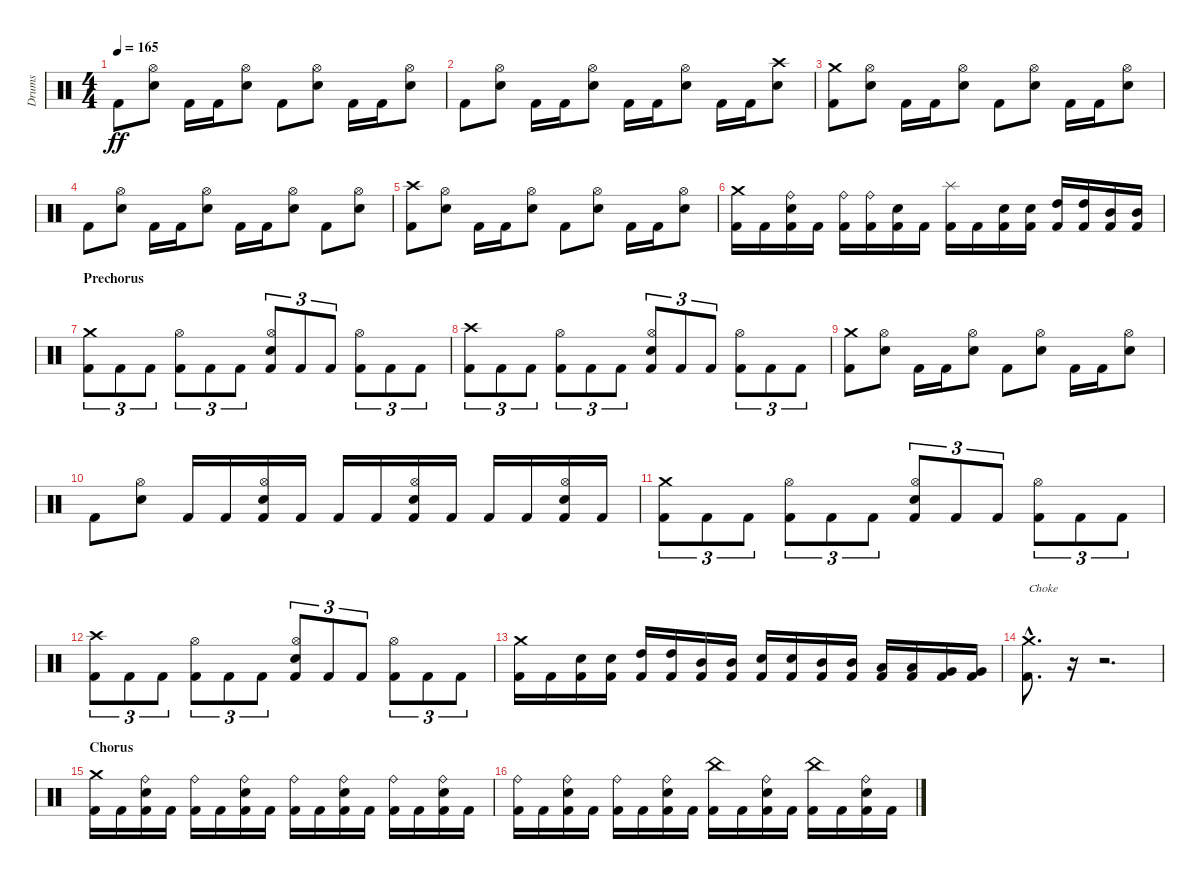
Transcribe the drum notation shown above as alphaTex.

\track ("Drums" "Drums") {instrument percussion}
\staff {score}
\articulation defaults
\ts (4 4)
\tempo 165
\clef neutral
\ks c "Kick (hit) 2".8{dy ff}
("Hi-Hat (open)" "Electric Snare (hit)").8 "Kick (hit) 2".16 "Kick (hit) 2".16 ("Hi-Hat (open)" "Electric Snare (hit)").8 "Kick (hit) 2".8 ("Hi-Hat (open)" "Electric Snare (hit)").8 "Kick (hit) 2".16 "Kick (hit) 2".16 ("Hi-Hat (open)" "Electric Snare (hit)").8 |
"Kick (hit) 2".8 ("Hi-Hat (open)" "Electric Snare (hit)").8 "Kick (hit) 2".16 "Kick (hit) 2".16 ("Hi-Hat (open)" "Electric Snare (hit)").8 "Kick (hit) 2".16 "Kick (hit) 2".16 ("Hi-Hat (open)" "Electric Snare (hit)").8 "Kick (hit) 2".16 "Kick (hit) 2".16 ("Crash high (hit)" "Electric Snare (hit)").8 |
("Crash medium (hit)" "Kick (hit) 2").8 ("Hi-Hat (open)" "Electric Snare (hit)").8 "Kick (hit) 2".16 "Kick (hit) 2".16 ("Hi-Hat (open)" "Electric Snare (hit)").8 "Kick (hit) 2".8 ("Hi-Hat (open)" "Electric Snare (hit)").8 "Kick (hit) 2".16 "Kick (hit) 2".16 ("Hi-Hat (open)" "Electric Snare (hit)").8 |
"Kick (hit) 2".8 ("Hi-Hat (open)" "Electric Snare (hit)").8 "Kick (hit) 2".16 "Kick (hit) 2".16 ("Hi-Hat (open)" "Electric Snare (hit)").8 "Kick (hit) 2".16 "Kick (hit) 2".16 ("Hi-Hat (open)" "Electric Snare (hit)").8 "Kick (hit) 2".8 ("Hi-Hat (open)" "Electric Snare (hit)").8 |
("Crash high (hit)" "Kick (hit) 2").8 ("Hi-Hat (open)" "Electric Snare (hit)").8 "Kick (hit) 2".16 "Kick (hit) 2".16 ("Hi-Hat (open)" "Electric Snare (hit)").8 "Kick (hit) 2".8 ("Hi-Hat (open)" "Electric Snare (hit)").8 "Kick (hit) 2".16 "Kick (hit) 2".16 ("Hi-Hat (open)" "Electric Snare (hit)").8 |
("Crash medium (hit)" "Kick (hit) 2").16 "Kick (hit) 2".16 ("Ride (bell)" "Electric Snare (hit)" "Kick (hit) 2").16 "Kick (hit) 2".16 ("Ride (bell)" "Kick (hit) 2").16 ("Ride (bell)" "Kick (hit) 2").16 ("Electric Snare (hit)" "Kick (hit) 2").16 "Kick (hit) 2".16 ("Splash (hit)" "Kick (hit) 2").16 "Kick (hit) 2".16 ("Electric Snare (hit)" "Kick (hit) 2").16 ("Electric Snare (hit)" "Kick (hit) 2").16 ("High Tom (hit)" "Kick (hit) 2").16 ("High Tom (hit)" "Kick (hit) 2").16 ("Mid Tom (hit)" "Kick (hit) 2").16 ("Mid Tom (hit)" "Kick (hit) 2").16 |
\section ("" "Prechorus")
("Crash medium (hit)" "Kick (hit) 2").8{tu (3 2)} "Kick (hit) 2".8{tu (3 2)} "Kick (hit) 2".8{tu (3 2)} ("Hi-Hat (open)" "Kick (hit) 2").8{tu (3 2)} "Kick (hit) 2".8{tu (3 2)} "Kick (hit) 2".8{tu (3 2)} ("Hi-Hat (open)" "Electric Snare (hit)" "Kick (hit) 2").8{tu (3 2)} "Kick (hit) 2".8{tu (3 2)} "Kick (hit) 2".8{tu (3 2)} ("Hi-Hat (open)" "Kick (hit) 2").8{tu (3 2)} "Kick (hit) 2".8{tu (3 2)} "Kick (hit) 2".8{tu (3 2)} |
("Crash high (hit)" "Kick (hit) 2").8{tu (3 2)} "Kick (hit) 2".8{tu (3 2)} "Kick (hit) 2".8{tu (3 2)} ("Hi-Hat (open)" "Kick (hit) 2").8{tu (3 2)} "Kick (hit) 2".8{tu (3 2)} "Kick (hit) 2".8{tu (3 2)} ("Hi-Hat (open)" "Electric Snare (hit)" "Kick (hit) 2").8{tu (3 2)} "Kick (hit) 2".8{tu (3 2)} "Kick (hit) 2".8{tu (3 2)} ("Hi-Hat (open)" "Kick (hit) 2").8{tu (3 2)} "Kick (hit) 2".8{tu (3 2)} "Kick (hit) 2".8{tu (3 2)} |
("Crash medium (hit)" "Kick (hit) 2").8 ("Hi-Hat (open)" "Electric Snare (hit)").8 "Kick (hit) 2".16 "Kick (hit) 2".16 ("Hi-Hat (open)" "Electric Snare (hit)").8 "Kick (hit) 2".8 ("Hi-Hat (open)" "Electric Snare (hit)").8 "Kick (hit) 2".16 "Kick (hit) 2".16 ("Hi-Hat (open)" "Electric Snare (hit)").8 |
"Kick (hit) 2".8 ("Hi-Hat (open)" "Electric Snare (hit)").8 "Kick (hit) 2".16 "Kick (hit) 2".16 ("Hi-Hat (open)" "Electric Snare (hit)" "Kick (hit) 2").16 "Kick (hit) 2".16 "Kick (hit) 2".16 "Kick (hit) 2".16 ("Hi-Hat (open)" "Electric Snare (hit)" "Kick (hit) 2").16 "Kick (hit) 2".16 "Kick (hit) 2".16 "Kick (hit) 2".16 ("Hi-Hat (open)" "Electric Snare (hit)" "Kick (hit) 2").16 "Kick (hit) 2".16 |
("Crash medium (hit)" "Kick (hit) 2").8{tu (3 2)} "Kick (hit) 2".8{tu (3 2)} "Kick (hit) 2".8{tu (3 2)} ("Hi-Hat (open)" "Kick (hit) 2").8{tu (3 2)} "Kick (hit) 2".8{tu (3 2)} "Kick (hit) 2".8{tu (3 2)} ("Hi-Hat (open)" "Electric Snare (hit)" "Kick (hit) 2").8{tu (3 2)} "Kick (hit) 2".8{tu (3 2)} "Kick (hit) 2".8{tu (3 2)} ("Hi-Hat (open)" "Kick (hit) 2").8{tu (3 2)} "Kick (hit) 2".8{tu (3 2)} "Kick (hit) 2".8{tu (3 2)} |
("Crash high (hit)" "Kick (hit) 2").8{tu (3 2)} "Kick (hit) 2".8{tu (3 2)} "Kick (hit) 2".8{tu (3 2)} ("Hi-Hat (open)" "Kick (hit) 2").8{tu (3 2)} "Kick (hit) 2".8{tu (3 2)} "Kick (hit) 2".8{tu (3 2)} ("Hi-Hat (open)" "Electric Snare (hit)" "Kick (hit) 2").8{tu (3 2)} "Kick (hit) 2".8{tu (3 2)} "Kick (hit) 2".8{tu (3 2)} ("Hi-Hat (open)" "Kick (hit) 2").8{tu (3 2)} "Kick (hit) 2".8{tu (3 2)} "Kick (hit) 2".8{tu (3 2)} |
("Crash medium (hit)" "Kick (hit) 2").16 "Kick (hit) 2".16 ("Electric Snare (hit)" "Kick (hit) 2").16 ("Electric Snare (hit)" "Kick (hit) 2").16 ("High Tom (hit)" "Kick (hit) 2").16 ("High Tom (hit)" "Kick (hit) 2").16 ("Mid Tom (hit)" "Kick (hit) 2").16 ("Mid Tom (hit)" "Kick (hit) 2").16 ("Electric Snare (hit)" "Kick (hit) 2").16 ("Electric Snare (hit)" "Kick (hit) 2").16 ("Mid Tom (hit)" "Kick (hit) 2").16 ("Mid Tom (hit)" "Kick (hit) 2").16 ("Low Tom (hit)" "Kick (hit) 2").16 ("Low Tom (hit)" "Kick (hit) 2").16 ("Very Low Tom (hit)" "Kick (hit) 2").16 ("Very Low Tom (hit)" "Kick (hit) 2").16 |
("Crash medium (hit)"{hac} "Kick (hit) 2"{hac}).8{d txt "Choke"} r.16{volume 0} r.2{d} |
\section ("" "Chorus")
("Crash medium (hit)" "Kick (hit) 2").16{volume 15} "Kick (hit) 2".16 ("Ride (bell)" "Electric Snare (hit)" "Kick (hit) 2").16 "Kick (hit) 2".16 ("Ride (bell)" "Kick (hit) 2").16 "Kick (hit) 2".16 ("Ride (bell)" "Electric Snare (hit)" "Kick (hit) 2").16 "Kick (hit) 2".16 ("Ride (bell)" "Kick (hit) 2").16 "Kick (hit) 2".16 ("Ride (bell)" "Electric Snare (hit)" "Kick (hit) 2").16 "Kick (hit) 2".16 ("Ride (bell)" "Kick (hit) 2").16 "Kick (hit) 2".16 ("Ride (bell)" "Electric Snare (hit)" "Kick (hit) 2").16 "Kick (hit) 2".16 |
("Ride (bell)" "Kick (hit) 2").16 "Kick (hit) 2".16 ("Ride (bell)" "Electric Snare (hit)" "Kick (hit) 2").16 "Kick (hit) 2".16 ("Ride (bell)" "Kick (hit) 2").16 "Kick (hit) 2".16 ("Ride (bell)" "Electric Snare (hit)" "Kick (hit) 2").16 "Kick (hit) 2".16 ("China (hit)" "Kick (hit) 2").16 "Kick (hit) 2".16 ("Ride (bell)" "Electric Snare (hit)" "Kick (hit) 2").16 "Kick (hit) 2".16 ("China (hit)" "Kick (hit) 2").16 "Kick (hit) 2".16 ("Ride (bell)" "Electric Snare (hit)" "Kick (hit) 2").16 "Kick (hit) 2".16
